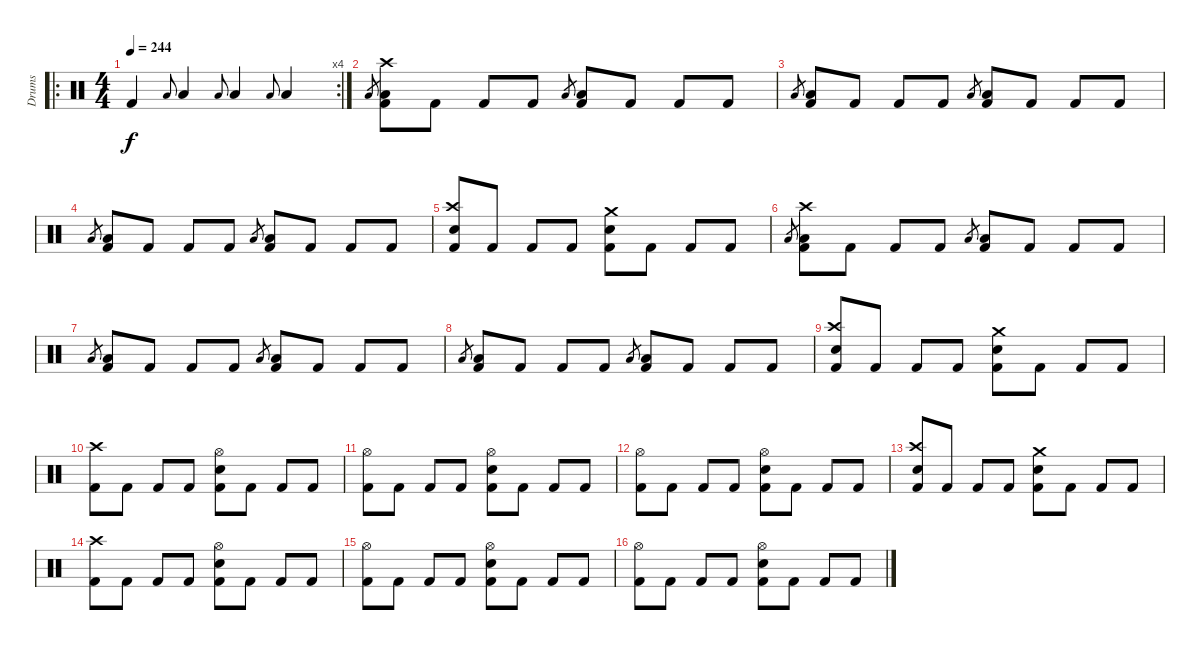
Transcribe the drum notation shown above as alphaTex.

\track ("Drums" "Drums") {instrument percussion}
\staff
\articulation defaults
\ro
\rc 4
\ts (4 4)
\tempo 244
\clef neutral
\ks c "Kick (hit) 2".4{dy f} "Low Floor Tom (hit)".8{gr onbeat} "Low Floor Tom (hit)".4 "Low Floor Tom (hit)".8{gr onbeat} "Low Floor Tom (hit)".4 "Low Floor Tom (hit)".8{gr onbeat} "Low Floor Tom (hit)".4
|
"Low Floor Tom (hit)".8{gr} ("Crash high (hit)" "Low Floor Tom (hit)" "Kick (hit) 2").8 "Kick (hit) 2".8 "Kick (hit) 2".8 "Kick (hit) 2".8 "Low Floor Tom (hit)".8{gr} ("Low Floor Tom (hit)" "Kick (hit) 2").8 "Kick (hit) 2".8 "Kick (hit) 2".8 "Kick (hit) 2".8 |
"Low Floor Tom (hit)".8{gr} ("Low Floor Tom (hit)" "Kick (hit) 2").8 "Kick (hit) 2".8 "Kick (hit) 2".8 "Kick (hit) 2".8 "Low Floor Tom (hit)".8{gr} ("Low Floor Tom (hit)" "Kick (hit) 2").8 "Kick (hit) 2".8 "Kick (hit) 2".8 "Kick (hit) 2".8 |
"Low Floor Tom (hit)".8{gr} ("Low Floor Tom (hit)" "Kick (hit) 2").8 "Kick (hit) 2".8 "Kick (hit) 2".8 "Kick (hit) 2".8 "Low Floor Tom (hit)".8{gr} ("Low Floor Tom (hit)" "Kick (hit) 2").8 "Kick (hit) 2".8 "Kick (hit) 2".8 "Kick (hit) 2".8 |
("Crash high (hit)" "Electric Snare (hit)" "Kick (hit) 2").8 "Kick (hit) 2".8 "Kick (hit) 2".8 "Kick (hit) 2".8 ("Crash medium (hit)" "Electric Snare (hit)" "Kick (hit) 2").8 "Kick (hit) 2".8 "Kick (hit) 2".8 "Kick (hit) 2".8 |
"Low Floor Tom (hit)".8{gr} ("Crash high (hit)" "Low Floor Tom (hit)" "Kick (hit) 2").8 "Kick (hit) 2".8 "Kick (hit) 2".8 "Kick (hit) 2".8 "Low Floor Tom (hit)".8{gr} ("Low Floor Tom (hit)" "Kick (hit) 2").8 "Kick (hit) 2".8 "Kick (hit) 2".8 "Kick (hit) 2".8 |
"Low Floor Tom (hit)".8{gr} ("Low Floor Tom (hit)" "Kick (hit) 2").8 "Kick (hit) 2".8 "Kick (hit) 2".8 "Kick (hit) 2".8 "Low Floor Tom (hit)".8{gr} ("Low Floor Tom (hit)" "Kick (hit) 2").8 "Kick (hit) 2".8 "Kick (hit) 2".8 "Kick (hit) 2".8 |
"Low Floor Tom (hit)".8{gr} ("Low Floor Tom (hit)" "Kick (hit) 2").8 "Kick (hit) 2".8 "Kick (hit) 2".8 "Kick (hit) 2".8 "Low Floor Tom (hit)".8{gr} ("Low Floor Tom (hit)" "Kick (hit) 2").8 "Kick (hit) 2".8 "Kick (hit) 2".8 "Kick (hit) 2".8 |
("Crash high (hit)" "Electric Snare (hit)" "Kick (hit) 2").8 "Kick (hit) 2".8 "Kick (hit) 2".8 "Kick (hit) 2".8 ("Crash medium (hit)" "Electric Snare (hit)" "Kick (hit) 2").8 "Kick (hit) 2".8 "Kick (hit) 2".8 "Kick (hit) 2".8 |
("Crash high (hit)" "Kick (hit) 2").8 "Kick (hit) 2".8 "Kick (hit) 2".8 "Kick (hit) 2".8 ("Hi-Hat (open)" "Electric Snare (hit)" "Kick (hit) 2").8 "Kick (hit) 2".8 "Kick (hit) 2".8 "Kick (hit) 2".8 |
("Hi-Hat (open)" "Kick (hit) 2").8 "Kick (hit) 2".8 "Kick (hit) 2".8 "Kick (hit) 2".8 ("Hi-Hat (open)" "Electric Snare (hit)" "Kick (hit) 2").8 "Kick (hit) 2".8 "Kick (hit) 2".8 "Kick (hit) 2".8 |
("Hi-Hat (open)" "Kick (hit) 2").8 "Kick (hit) 2".8 "Kick (hit) 2".8 "Kick (hit) 2".8 ("Hi-Hat (open)" "Electric Snare (hit)" "Kick (hit) 2").8 "Kick (hit) 2".8 "Kick (hit) 2".8 "Kick (hit) 2".8 |
("Crash high (hit)" "Electric Snare (hit)" "Kick (hit) 2").8 "Kick (hit) 2".8 "Kick (hit) 2".8 "Kick (hit) 2".8 ("Crash medium (hit)" "Electric Snare (hit)" "Kick (hit) 2").8 "Kick (hit) 2".8 "Kick (hit) 2".8 "Kick (hit) 2".8 |
("Crash high (hit)" "Kick (hit) 2").8 "Kick (hit) 2".8 "Kick (hit) 2".8 "Kick (hit) 2".8 ("Hi-Hat (open)" "Electric Snare (hit)" "Kick (hit) 2").8 "Kick (hit) 2".8 "Kick (hit) 2".8 "Kick (hit) 2".8 |
("Hi-Hat (open)" "Kick (hit) 2").8 "Kick (hit) 2".8 "Kick (hit) 2".8 "Kick (hit) 2".8 ("Hi-Hat (open)" "Electric Snare (hit)" "Kick (hit) 2").8 "Kick (hit) 2".8 "Kick (hit) 2".8 "Kick (hit) 2".8 |
("Hi-Hat (open)" "Kick (hit) 2").8 "Kick (hit) 2".8 "Kick (hit) 2".8 "Kick (hit) 2".8 ("Hi-Hat (open)" "Electric Snare (hit)" "Kick (hit) 2").8 "Kick (hit) 2".8 "Kick (hit) 2".8 "Kick (hit) 2".8
